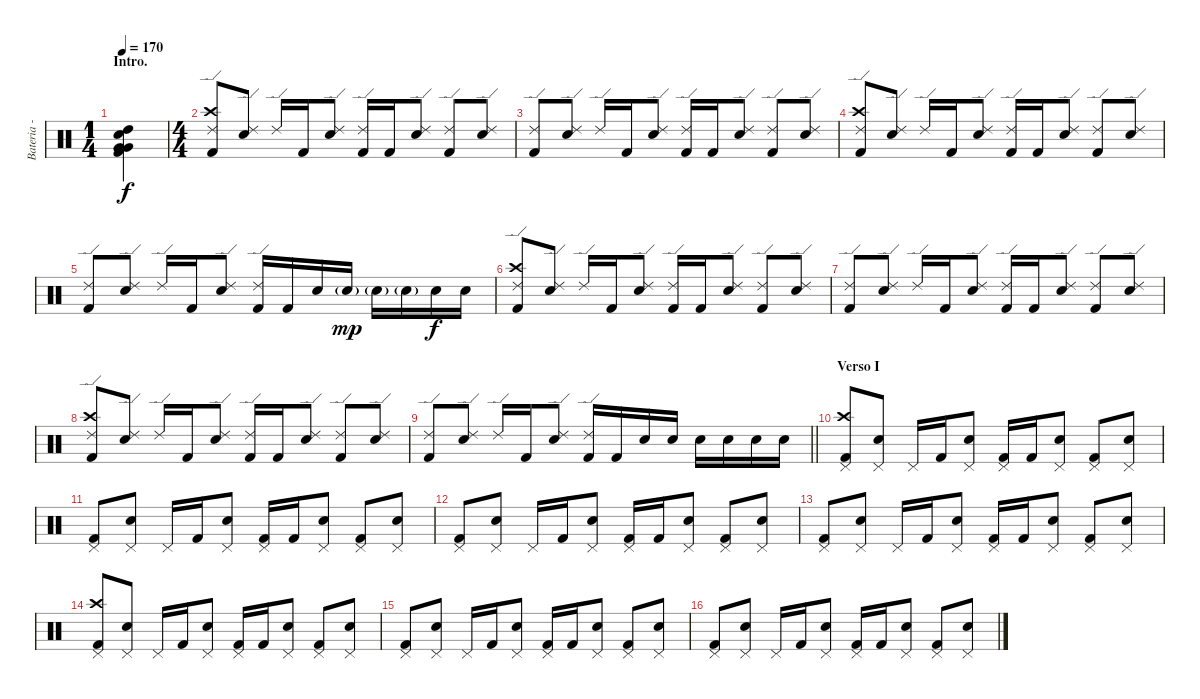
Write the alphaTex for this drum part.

\track ("Bateria - Larzon" "Bateria - ") {instrument percussion}
\staff {score}
\articulation defaults
\ts (1 4)
\section ("" "Intro.")
\tempo 170
\clef neutral
\ks c
("High Tom (hit)" "Snare (hit) 2" "Kick (hit) 2" "Very Low Tom (hit)" "Very Low Tom (hit)").4{dy f} |
\ts (4 4)
("Kick (hit) 2" "Crash high (hit)" "Ride (edge) 2").8 ("Snare (hit) 2" "Ride (edge) 2").8 "Ride (edge) 2".16 "Kick (hit) 2".16 ("Snare (hit) 2" "Ride (edge) 2").8 ("Kick (hit) 2" "Ride (edge) 2").16 "Kick (hit) 2".16 ("Snare (hit) 2" "Ride (edge) 2").8 ("Kick (hit) 2" "Ride (edge) 2").8 ("Snare (hit) 2" "Ride (edge) 2").8 |
("Kick (hit) 2" "Ride (edge) 2").8 ("Snare (hit) 2" "Ride (edge) 2").8 "Ride (edge) 2".16 "Kick (hit) 2".16 ("Snare (hit) 2" "Ride (edge) 2").8 ("Kick (hit) 2" "Ride (edge) 2").16 "Kick (hit) 2".16 ("Snare (hit) 2" "Ride (edge) 2").8 ("Kick (hit) 2" "Ride (edge) 2").8 ("Snare (hit) 2" "Ride (edge) 2").8 |
("Kick (hit) 2" "Crash high (hit)" "Ride (edge) 2").8 ("Snare (hit) 2" "Ride (edge) 2").8 "Ride (edge) 2".16 "Kick (hit) 2".16 ("Snare (hit) 2" "Ride (edge) 2").8 ("Kick (hit) 2" "Ride (edge) 2").16 "Kick (hit) 2".16 ("Snare (hit) 2" "Ride (edge) 2").8 ("Kick (hit) 2" "Ride (edge) 2").8 ("Snare (hit) 2" "Ride (edge) 2").8 |
("Kick (hit) 2" "Ride (edge) 2").8 ("Snare (hit) 2" "Ride (edge) 2").8 "Ride (edge) 2".16 "Kick (hit) 2".16 ("Snare (hit) 2" "Ride (edge) 2").8 ("Kick (hit) 2" "Ride (edge) 2").16 "Kick (hit) 2".16 "Snare (hit) 2".16 "Snare (hit) 2"{g}.16{dy mp} "Snare (hit) 2"{g}.16 "Snare (hit) 2"{g}.16 "Snare (hit) 2".16{dy f} "Snare (hit) 2".16 |
("Kick (hit) 2" "Crash high (hit)" "Ride (edge) 2").8 ("Snare (hit) 2" "Ride (edge) 2").8 "Ride (edge) 2".16 "Kick (hit) 2".16 ("Snare (hit) 2" "Ride (edge) 2").8 ("Kick (hit) 2" "Ride (edge) 2").16 "Kick (hit) 2".16 ("Snare (hit) 2" "Ride (edge) 2").8 ("Kick (hit) 2" "Ride (edge) 2").8 ("Snare (hit) 2" "Ride (edge) 2").8 |
("Kick (hit) 2" "Ride (edge) 2").8 ("Snare (hit) 2" "Ride (edge) 2").8 "Ride (edge) 2".16 "Kick (hit) 2".16 ("Snare (hit) 2" "Ride (edge) 2").8 ("Kick (hit) 2" "Ride (edge) 2").16 "Kick (hit) 2".16 ("Snare (hit) 2" "Ride (edge) 2").8 ("Kick (hit) 2" "Ride (edge) 2").8 ("Snare (hit) 2" "Ride (edge) 2").8 |
("Kick (hit) 2" "Crash high (hit)" "Ride (edge) 2").8 ("Snare (hit) 2" "Ride (edge) 2").8 "Ride (edge) 2".16 "Kick (hit) 2".16 ("Snare (hit) 2" "Ride (edge) 2").8 ("Kick (hit) 2" "Ride (edge) 2").16 "Kick (hit) 2".16 ("Snare (hit) 2" "Ride (edge) 2").8 ("Kick (hit) 2" "Ride (edge) 2").8 ("Snare (hit) 2" "Ride (edge) 2").8 |
\barLineRight lightlight
("Kick (hit) 2" "Ride (edge) 2").8 ("Snare (hit) 2" "Ride (edge) 2").8 "Ride (edge) 2".16 "Kick (hit) 2".16 ("Snare (hit) 2" "Ride (edge) 2").8 ("Kick (hit) 2" "Ride (edge) 2").16 "Kick (hit) 2".16 "Snare (hit) 2".16 "Snare (hit) 2".16 "Snare (hit) 2".16 "Snare (hit) 2".16 "Snare (hit) 2".16 "Snare (hit) 2".16 |
\section ("" "Verso I")
("Kick (hit) 2" "Crash high (hit)" "Pedal Hi-Hat (hit)").8 ("Snare (hit) 2" "Pedal Hi-Hat (hit)").8 "Pedal Hi-Hat (hit)".16 "Kick (hit) 2".16 ("Snare (hit) 2" "Pedal Hi-Hat (hit)").8 ("Kick (hit) 2" "Pedal Hi-Hat (hit)").16 "Kick (hit) 2".16 ("Snare (hit) 2" "Pedal Hi-Hat (hit)").8 ("Kick (hit) 2" "Pedal Hi-Hat (hit)").8 ("Snare (hit) 2" "Pedal Hi-Hat (hit)").8 |
("Kick (hit) 2" "Pedal Hi-Hat (hit)").8 ("Snare (hit) 2" "Pedal Hi-Hat (hit)").8 "Pedal Hi-Hat (hit)".16 "Kick (hit) 2".16 ("Snare (hit) 2" "Pedal Hi-Hat (hit)").8 ("Kick (hit) 2" "Pedal Hi-Hat (hit)").16 "Kick (hit) 2".16 ("Snare (hit) 2" "Pedal Hi-Hat (hit)").8 ("Kick (hit) 2" "Pedal Hi-Hat (hit)").8 ("Snare (hit) 2" "Pedal Hi-Hat (hit)").8 |
("Kick (hit) 2" "Pedal Hi-Hat (hit)").8 ("Snare (hit) 2" "Pedal Hi-Hat (hit)").8 "Pedal Hi-Hat (hit)".16 "Kick (hit) 2".16 ("Snare (hit) 2" "Pedal Hi-Hat (hit)").8 ("Kick (hit) 2" "Pedal Hi-Hat (hit)").16 "Kick (hit) 2".16 ("Snare (hit) 2" "Pedal Hi-Hat (hit)").8 ("Kick (hit) 2" "Pedal Hi-Hat (hit)").8 ("Snare (hit) 2" "Pedal Hi-Hat (hit)").8 |
("Kick (hit) 2" "Pedal Hi-Hat (hit)").8 ("Snare (hit) 2" "Pedal Hi-Hat (hit)").8 "Pedal Hi-Hat (hit)".16 "Kick (hit) 2".16 ("Snare (hit) 2" "Pedal Hi-Hat (hit)").8 ("Kick (hit) 2" "Pedal Hi-Hat (hit)").16 "Kick (hit) 2".16 ("Snare (hit) 2" "Pedal Hi-Hat (hit)").8 ("Kick (hit) 2" "Pedal Hi-Hat (hit)").8 ("Snare (hit) 2" "Pedal Hi-Hat (hit)").8 |
("Kick (hit) 2" "Crash high (hit)" "Pedal Hi-Hat (hit)").8 ("Snare (hit) 2" "Pedal Hi-Hat (hit)").8 "Pedal Hi-Hat (hit)".16 "Kick (hit) 2".16 ("Snare (hit) 2" "Pedal Hi-Hat (hit)").8 ("Kick (hit) 2" "Pedal Hi-Hat (hit)").16 "Kick (hit) 2".16 ("Snare (hit) 2" "Pedal Hi-Hat (hit)").8 ("Kick (hit) 2" "Pedal Hi-Hat (hit)").8 ("Snare (hit) 2" "Pedal Hi-Hat (hit)").8 |
("Kick (hit) 2" "Pedal Hi-Hat (hit)").8 ("Snare (hit) 2" "Pedal Hi-Hat (hit)").8 "Pedal Hi-Hat (hit)".16 "Kick (hit) 2".16 ("Snare (hit) 2" "Pedal Hi-Hat (hit)").8 ("Kick (hit) 2" "Pedal Hi-Hat (hit)").16 "Kick (hit) 2".16 ("Snare (hit) 2" "Pedal Hi-Hat (hit)").8 ("Kick (hit) 2" "Pedal Hi-Hat (hit)").8 ("Snare (hit) 2" "Pedal Hi-Hat (hit)").8 |
("Kick (hit) 2" "Pedal Hi-Hat (hit)").8 ("Snare (hit) 2" "Pedal Hi-Hat (hit)").8 "Pedal Hi-Hat (hit)".16 "Kick (hit) 2".16 ("Snare (hit) 2" "Pedal Hi-Hat (hit)").8 ("Kick (hit) 2" "Pedal Hi-Hat (hit)").16 "Kick (hit) 2".16 ("Snare (hit) 2" "Pedal Hi-Hat (hit)").8 ("Kick (hit) 2" "Pedal Hi-Hat (hit)").8 ("Snare (hit) 2" "Pedal Hi-Hat (hit)").8
